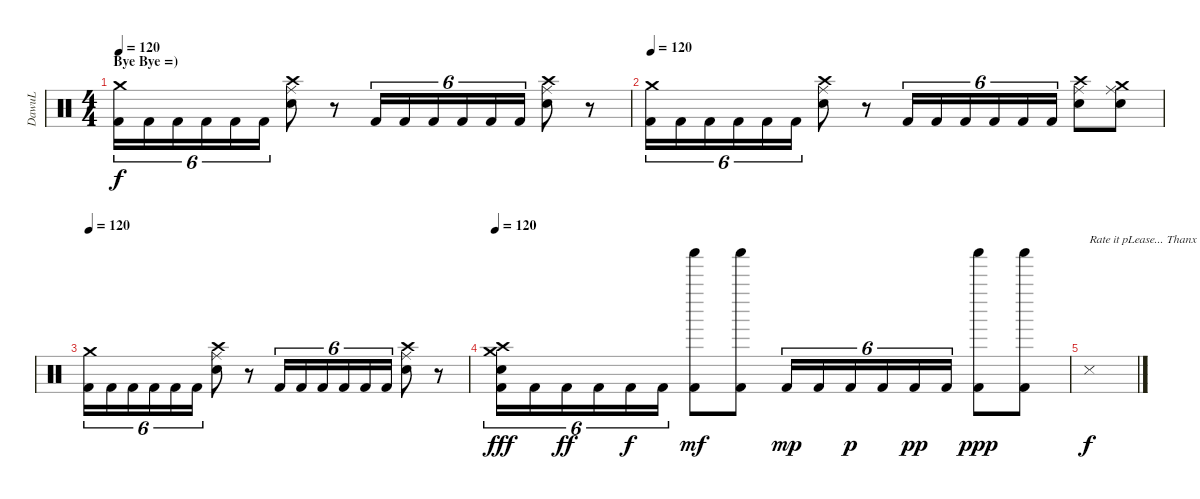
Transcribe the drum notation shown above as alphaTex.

\track ("DawuL" "DawuL") {instrument percussion}
\staff {score}
\articulation defaults
\ts (4 4)
\section ("" "Bye Bye =)")
\tempo 120
\clef neutral
\ks c
("Crash medium (hit)" "Kick (hit) 2").16{tu (6 4) dy f} "Kick (hit) 2".16{tu (6 4)} "Kick (hit) 2".16{tu (6 4)} "Kick (hit) 2".16{tu (6 4)} "Kick (hit) 2".16{tu (6 4)} "Kick (hit) 2".16{tu (6 4)} ("Electric Snare (hit)" "Ride (middle)" "Crash high (hit)").8 r.8 "Kick (hit) 2".16{tu (6 4)} "Kick (hit) 2".16{tu (6 4)} "Kick (hit) 2".16{tu (6 4)} "Kick (hit) 2".16{tu (6 4)} "Kick (hit) 2".16{tu (6 4)} "Kick (hit) 2".16{tu (6 4)} ("Electric Snare (hit)" "Ride (middle)" "Crash high (hit)").8 r.8 |
\tempo 120
("Crash medium (hit)" "Kick (hit) 2").16{tu (6 4)} "Kick (hit) 2".16{tu (6 4)} "Kick (hit) 2".16{tu (6 4)} "Kick (hit) 2".16{tu (6 4)} "Kick (hit) 2".16{tu (6 4)} "Kick (hit) 2".16{tu (6 4)} ("Electric Snare (hit)" "Ride (middle)" "Crash high (hit)").8 r.8 "Kick (hit) 2".16{tu (6 4)} "Kick (hit) 2".16{tu (6 4)} "Kick (hit) 2".16{tu (6 4)} "Kick (hit) 2".16{tu (6 4)} "Kick (hit) 2".16{tu (6 4)} "Kick (hit) 2".16{tu (6 4)} ("Electric Snare (hit)" "Ride (middle)" "Crash high (hit)").8 ("Electric Snare (hit)" "Ride (middle)" "Crash medium (hit)").8 |
\tempo 120
("Crash medium (hit)" "Kick (hit) 2").16{tu (6 4)} "Kick (hit) 2".16{tu (6 4)} "Kick (hit) 2".16{tu (6 4)} "Kick (hit) 2".16{tu (6 4)} "Kick (hit) 2".16{tu (6 4)} "Kick (hit) 2".16{tu (6 4)} ("Electric Snare (hit)" "Ride (middle)" "Crash high (hit)").8 r.8 "Kick (hit) 2".16{tu (6 4)} "Kick (hit) 2".16{tu (6 4)} "Kick (hit) 2".16{tu (6 4)} "Kick (hit) 2".16{tu (6 4)} "Kick (hit) 2".16{tu (6 4)} "Kick (hit) 2".16{tu (6 4)} ("Electric Snare (hit)" "Ride (middle)" "Crash high (hit)").8 r.8 |
\tempo 120
("Crash medium (hit)" "Crash high (hit)" "Electric Snare (hit)" "Kick (hit) 2").16{tu (6 4) dy fff} "Kick (hit) 2".16{tu (6 4)} "Kick (hit) 2".16{tu (6 4) dy ff} "Kick (hit) 2".16{tu (6 4)} "Kick (hit) 2".16{tu (6 4) dy f} "Kick (hit) 2".16{tu (6 4)} ("Shaker (hit)" "Kick (hit) 2").8{dy mf} ("Shaker (hit)" "Kick (hit) 2").8 "Kick (hit) 2".16{tu (6 4) dy mp} "Kick (hit) 2".16{tu (6 4)} "Kick (hit) 2".16{tu (6 4) dy p} "Kick (hit) 2".16{tu (6 4)} "Kick (hit) 2".16{tu (6 4) dy pp} "Kick (hit) 2".16{tu (6 4)} ("Shaker (hit)" "Kick (hit) 2").8{dy ppp} ("Shaker (hit)" "Kick (hit) 2").8 |
"Snare (side stick) 3".1{txt "Rate it pLease... Thanx" dy f}
